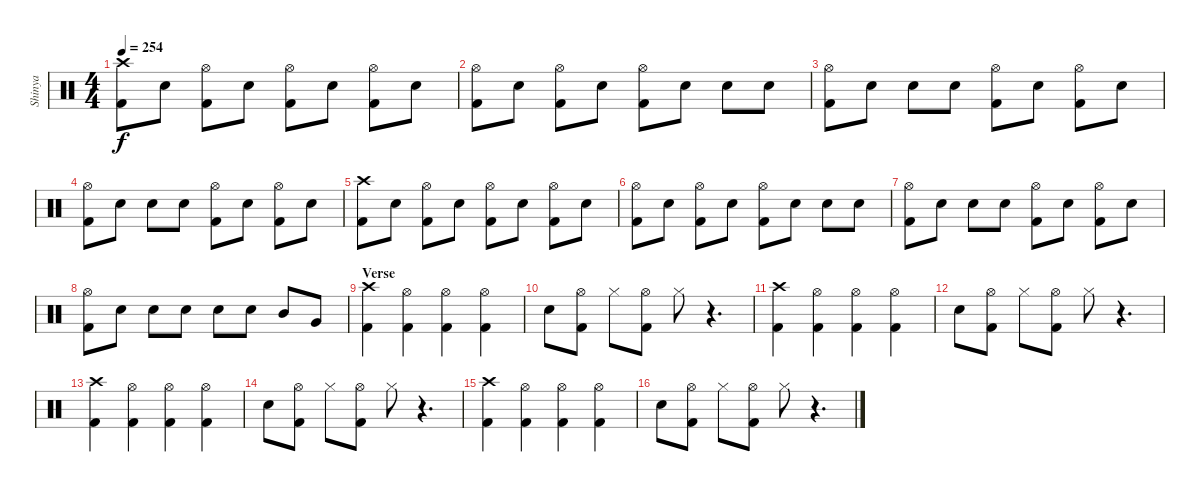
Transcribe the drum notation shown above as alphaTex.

\track ("Shinya" "Shinya") {instrument percussion}
\staff {score}
\articulation defaults
\ts (4 4)
\tempo 254
\clef neutral
\ks c
("Crash high (hit)" "Kick (hit) 2").8{dy f} "Electric Snare (hit)".8 ("Hi-Hat (open)" "Kick (hit) 2").8 "Electric Snare (hit)".8 ("Hi-Hat (open)" "Kick (hit) 2").8 "Electric Snare (hit)".8 ("Hi-Hat (open)" "Kick (hit) 2").8 "Electric Snare (hit)".8 |
("Hi-Hat (open)" "Kick (hit) 2").8 "Electric Snare (hit)".8 ("Hi-Hat (open)" "Kick (hit) 2").8 "Electric Snare (hit)".8 ("Hi-Hat (open)" "Kick (hit) 2").8 "Electric Snare (hit)".8 "Electric Snare (hit)".8 "Electric Snare (hit)".8 |
("Hi-Hat (open)" "Kick (hit) 2").8 "Electric Snare (hit)".8 "Electric Snare (hit)".8 "Electric Snare (hit)".8 ("Hi-Hat (open)" "Kick (hit) 2").8 "Electric Snare (hit)".8 ("Hi-Hat (open)" "Kick (hit) 2").8 "Electric Snare (hit)".8 |
("Hi-Hat (open)" "Kick (hit) 2").8 "Electric Snare (hit)".8 "Electric Snare (hit)".8 "Electric Snare (hit)".8 ("Hi-Hat (open)" "Kick (hit) 2").8 "Electric Snare (hit)".8 ("Hi-Hat (open)" "Kick (hit) 2").8 "Electric Snare (hit)".8 |
("Crash high (hit)" "Kick (hit) 2").8 "Electric Snare (hit)".8 ("Hi-Hat (open)" "Kick (hit) 2").8 "Electric Snare (hit)".8 ("Hi-Hat (open)" "Kick (hit) 2").8 "Electric Snare (hit)".8 ("Hi-Hat (open)" "Kick (hit) 2").8 "Electric Snare (hit)".8 |
("Hi-Hat (open)" "Kick (hit) 2").8 "Electric Snare (hit)".8 ("Hi-Hat (open)" "Kick (hit) 2").8 "Electric Snare (hit)".8 ("Hi-Hat (open)" "Kick (hit) 2").8 "Electric Snare (hit)".8 "Electric Snare (hit)".8 "Electric Snare (hit)".8 |
("Hi-Hat (open)" "Kick (hit) 2").8 "Electric Snare (hit)".8 "Electric Snare (hit)".8 "Electric Snare (hit)".8 ("Hi-Hat (open)" "Kick (hit) 2").8 "Electric Snare (hit)".8 ("Hi-Hat (open)" "Kick (hit) 2").8 "Electric Snare (hit)".8 |
("Hi-Hat (open)" "Kick (hit) 2").8 "Electric Snare (hit)".8 "Electric Snare (hit)".8 "Electric Snare (hit)".8 "Electric Snare (hit)".8 "Electric Snare (hit)".8 "Mid Tom (hit)".8 "Very Low Tom (hit)".8 |
\section ("" "Verse")
("Kick (hit) 2" "Crash high (hit)").4 ("Hi-Hat (open)" "Kick (hit) 2").4 ("Hi-Hat (open)" "Kick (hit) 2").4 ("Hi-Hat (open)" "Kick (hit) 2").4 |
"Electric Snare (hit)".8 ("Hi-Hat (open)" "Kick (hit) 2").8 "Hi-Hat (closed)".8 ("Hi-Hat (open)" "Kick (hit) 2").8 "Hi-Hat (closed)".8 r.4{d} |
("Kick (hit) 2" "Crash high (hit)").4 ("Hi-Hat (open)" "Kick (hit) 2").4 ("Hi-Hat (open)" "Kick (hit) 2").4 ("Hi-Hat (open)" "Kick (hit) 2").4 |
"Electric Snare (hit)".8 ("Hi-Hat (open)" "Kick (hit) 2").8 "Hi-Hat (closed)".8 ("Hi-Hat (open)" "Kick (hit) 2").8 "Hi-Hat (closed)".8 r.4{d} |
("Kick (hit) 2" "Crash high (hit)").4 ("Hi-Hat (open)" "Kick (hit) 2").4 ("Hi-Hat (open)" "Kick (hit) 2").4 ("Hi-Hat (open)" "Kick (hit) 2").4 |
"Electric Snare (hit)".8 ("Hi-Hat (open)" "Kick (hit) 2").8 "Hi-Hat (closed)".8 ("Hi-Hat (open)" "Kick (hit) 2").8 "Hi-Hat (closed)".8 r.4{d} |
("Kick (hit) 2" "Crash high (hit)").4 ("Hi-Hat (open)" "Kick (hit) 2").4 ("Hi-Hat (open)" "Kick (hit) 2").4 ("Hi-Hat (open)" "Kick (hit) 2").4 |
"Electric Snare (hit)".8 ("Hi-Hat (open)" "Kick (hit) 2").8 "Hi-Hat (closed)".8 ("Hi-Hat (open)" "Kick (hit) 2").8 "Hi-Hat (closed)".8 r.4{d}
